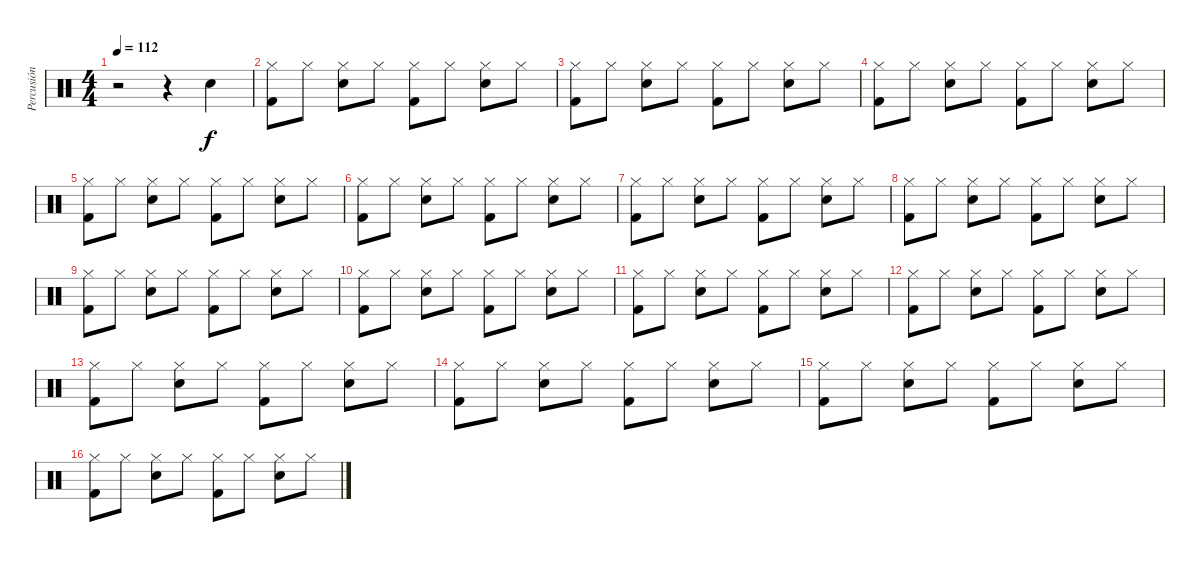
\track ("Percusión" "Percusión") {instrument percussion}
\staff {score}
\articulation defaults
\ts (4 4)
\tempo 112
\clef neutral
\ks c
r.2{dy f} r.4 "Snare (hit) 2".4 |
("Hi-Hat (closed)" "Kick (hit) 2").8 "Hi-Hat (closed)".8 ("Hi-Hat (closed)" "Snare (hit) 2").8 "Hi-Hat (closed)".8 ("Hi-Hat (closed)" "Kick (hit) 2").8 "Hi-Hat (closed)".8 ("Hi-Hat (closed)" "Snare (hit) 2").8 "Hi-Hat (closed)".8 |
("Hi-Hat (closed)" "Kick (hit) 2").8 "Hi-Hat (closed)".8 ("Hi-Hat (closed)" "Snare (hit) 2").8 "Hi-Hat (closed)".8 ("Hi-Hat (closed)" "Kick (hit) 2").8 "Hi-Hat (closed)".8 ("Hi-Hat (closed)" "Snare (hit) 2").8 "Hi-Hat (closed)".8 |
("Hi-Hat (closed)" "Kick (hit) 2").8 "Hi-Hat (closed)".8 ("Hi-Hat (closed)" "Snare (hit) 2").8 "Hi-Hat (closed)".8 ("Hi-Hat (closed)" "Kick (hit) 2").8 "Hi-Hat (closed)".8 ("Hi-Hat (closed)" "Snare (hit) 2").8 "Hi-Hat (closed)".8 |
("Hi-Hat (closed)" "Kick (hit) 2").8 "Hi-Hat (closed)".8 ("Hi-Hat (closed)" "Snare (hit) 2").8 "Hi-Hat (closed)".8 ("Hi-Hat (closed)" "Kick (hit) 2").8 "Hi-Hat (closed)".8 ("Hi-Hat (closed)" "Snare (hit) 2").8 "Hi-Hat (closed)".8 |
("Hi-Hat (closed)" "Kick (hit) 2").8 "Hi-Hat (closed)".8 ("Hi-Hat (closed)" "Snare (hit) 2").8 "Hi-Hat (closed)".8 ("Hi-Hat (closed)" "Kick (hit) 2").8 "Hi-Hat (closed)".8 ("Hi-Hat (closed)" "Snare (hit) 2").8 "Hi-Hat (closed)".8 |
("Hi-Hat (closed)" "Kick (hit) 2").8 "Hi-Hat (closed)".8 ("Hi-Hat (closed)" "Snare (hit) 2").8 "Hi-Hat (closed)".8 ("Hi-Hat (closed)" "Kick (hit) 2").8 "Hi-Hat (closed)".8 ("Hi-Hat (closed)" "Snare (hit) 2").8 "Hi-Hat (closed)".8 |
("Hi-Hat (closed)" "Kick (hit) 2").8 "Hi-Hat (closed)".8 ("Hi-Hat (closed)" "Snare (hit) 2").8 "Hi-Hat (closed)".8 ("Hi-Hat (closed)" "Kick (hit) 2").8 "Hi-Hat (closed)".8 ("Hi-Hat (closed)" "Snare (hit) 2").8 "Hi-Hat (closed)".8 |
("Hi-Hat (closed)" "Kick (hit) 2").8 "Hi-Hat (closed)".8 ("Hi-Hat (closed)" "Snare (hit) 2").8 "Hi-Hat (closed)".8 ("Hi-Hat (closed)" "Kick (hit) 2").8 "Hi-Hat (closed)".8 ("Hi-Hat (closed)" "Snare (hit) 2").8 "Hi-Hat (closed)".8 |
("Hi-Hat (closed)" "Kick (hit) 2").8 "Hi-Hat (closed)".8 ("Hi-Hat (closed)" "Snare (hit) 2").8 "Hi-Hat (closed)".8 ("Hi-Hat (closed)" "Kick (hit) 2").8 "Hi-Hat (closed)".8 ("Hi-Hat (closed)" "Snare (hit) 2").8 "Hi-Hat (closed)".8 |
("Hi-Hat (closed)" "Kick (hit) 2").8 "Hi-Hat (closed)".8 ("Hi-Hat (closed)" "Snare (hit) 2").8 "Hi-Hat (closed)".8 ("Hi-Hat (closed)" "Kick (hit) 2").8 "Hi-Hat (closed)".8 ("Hi-Hat (closed)" "Snare (hit) 2").8 "Hi-Hat (closed)".8 |
("Hi-Hat (closed)" "Kick (hit) 2").8 "Hi-Hat (closed)".8 ("Hi-Hat (closed)" "Snare (hit) 2").8 "Hi-Hat (closed)".8 ("Hi-Hat (closed)" "Kick (hit) 2").8 "Hi-Hat (closed)".8 ("Hi-Hat (closed)" "Snare (hit) 2").8 "Hi-Hat (closed)".8 |
("Hi-Hat (closed)" "Kick (hit) 2").8 "Hi-Hat (closed)".8 ("Hi-Hat (closed)" "Snare (hit) 2").8 "Hi-Hat (closed)".8 ("Hi-Hat (closed)" "Kick (hit) 2").8 "Hi-Hat (closed)".8 ("Hi-Hat (closed)" "Snare (hit) 2").8 "Hi-Hat (closed)".8 |
("Hi-Hat (closed)" "Kick (hit) 2").8 "Hi-Hat (closed)".8 ("Hi-Hat (closed)" "Snare (hit) 2").8 "Hi-Hat (closed)".8 ("Hi-Hat (closed)" "Kick (hit) 2").8 "Hi-Hat (closed)".8 ("Hi-Hat (closed)" "Snare (hit) 2").8 "Hi-Hat (closed)".8 |
("Hi-Hat (closed)" "Kick (hit) 2").8 "Hi-Hat (closed)".8 ("Hi-Hat (closed)" "Snare (hit) 2").8 "Hi-Hat (closed)".8 ("Hi-Hat (closed)" "Kick (hit) 2").8 "Hi-Hat (closed)".8 ("Hi-Hat (closed)" "Snare (hit) 2").8 "Hi-Hat (closed)".8 |
("Hi-Hat (closed)" "Kick (hit) 2").8 "Hi-Hat (closed)".8 ("Hi-Hat (closed)" "Snare (hit) 2").8 "Hi-Hat (closed)".8 ("Hi-Hat (closed)" "Kick (hit) 2").8 "Hi-Hat (closed)".8 ("Hi-Hat (closed)" "Snare (hit) 2").8 "Hi-Hat (closed)".8
